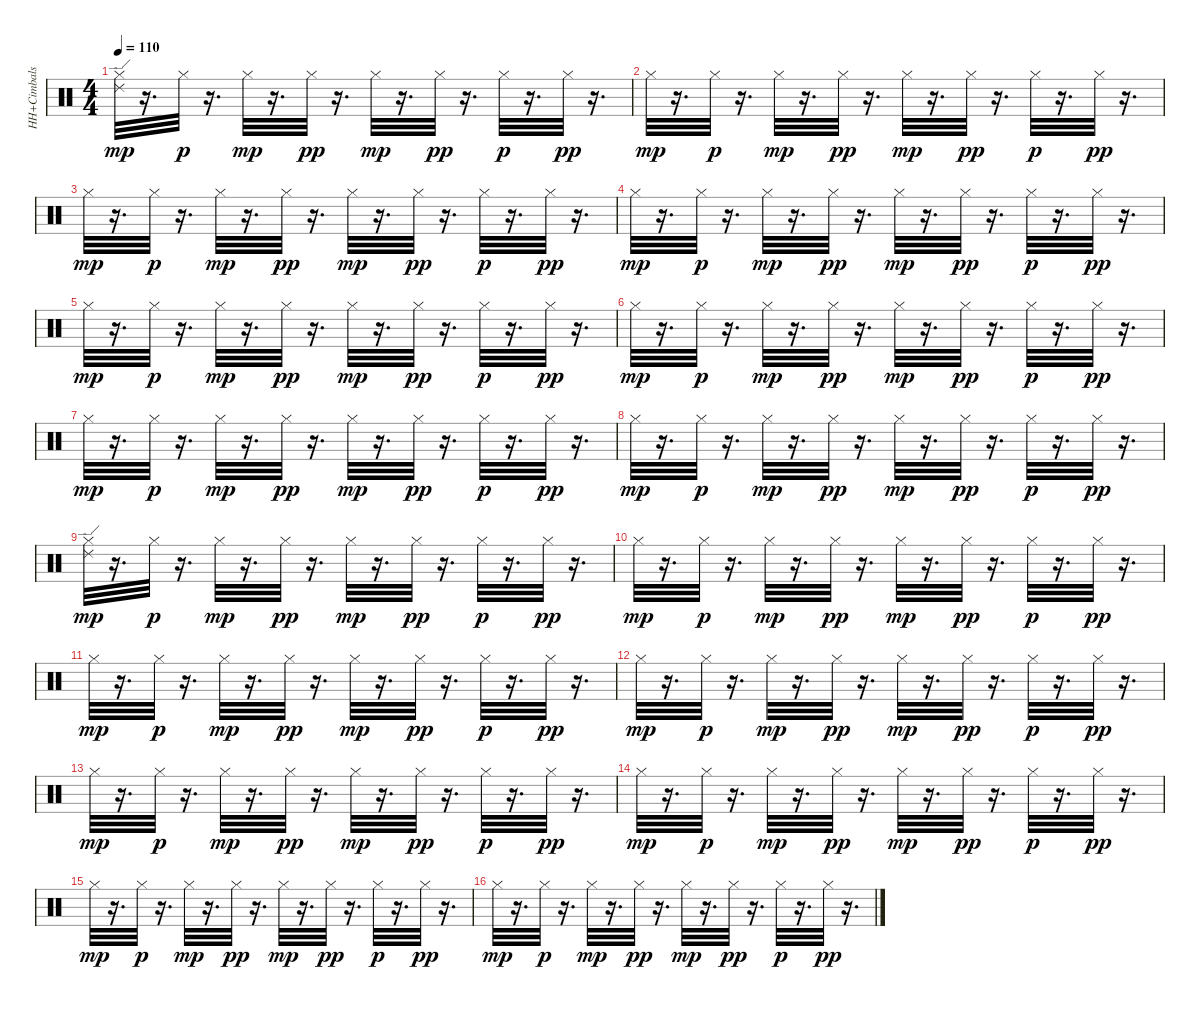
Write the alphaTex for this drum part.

\track ("HH+Cimbals" "HH+Cimbals") {instrument percussion}
\staff {score}
\articulation defaults
\ts (4 4)
\tempo 110
\clef neutral
\ks c
("Hi-Hat (closed)" "Ride (edge) 2").32{dy mp} r.16{d} "Hi-Hat (closed)".32{dy p} r.16{d} "Hi-Hat (closed)".32{dy mp} r.16{d} "Hi-Hat (closed)".32{dy pp} r.16{d} "Hi-Hat (closed)".32{dy mp} r.16{d} "Hi-Hat (closed)".32{dy pp} r.16{d} "Hi-Hat (closed)".32{dy p} r.16{d} "Hi-Hat (closed)".32{dy pp} r.16{d} |
"Hi-Hat (closed)".32{dy mp} r.16{d} "Hi-Hat (closed)".32{dy p} r.16{d} "Hi-Hat (closed)".32{dy mp} r.16{d} "Hi-Hat (closed)".32{dy pp} r.16{d} "Hi-Hat (closed)".32{dy mp} r.16{d} "Hi-Hat (closed)".32{dy pp} r.16{d} "Hi-Hat (closed)".32{dy p} r.16{d} "Hi-Hat (closed)".32{dy pp} r.16{d} |
"Hi-Hat (closed)".32{dy mp} r.16{d} "Hi-Hat (closed)".32{dy p} r.16{d} "Hi-Hat (closed)".32{dy mp} r.16{d} "Hi-Hat (closed)".32{dy pp} r.16{d} "Hi-Hat (closed)".32{dy mp} r.16{d} "Hi-Hat (closed)".32{dy pp} r.16{d} "Hi-Hat (closed)".32{dy p} r.16{d} "Hi-Hat (closed)".32{dy pp} r.16{d} |
"Hi-Hat (closed)".32{dy mp} r.16{d} "Hi-Hat (closed)".32{dy p} r.16{d} "Hi-Hat (closed)".32{dy mp} r.16{d} "Hi-Hat (closed)".32{dy pp} r.16{d} "Hi-Hat (closed)".32{dy mp} r.16{d} "Hi-Hat (closed)".32{dy pp} r.16{d} "Hi-Hat (closed)".32{dy p} r.16{d} "Hi-Hat (closed)".32{dy pp} r.16{d} |
"Hi-Hat (closed)".32{dy mp} r.16{d} "Hi-Hat (closed)".32{dy p} r.16{d} "Hi-Hat (closed)".32{dy mp} r.16{d} "Hi-Hat (closed)".32{dy pp} r.16{d} "Hi-Hat (closed)".32{dy mp} r.16{d} "Hi-Hat (closed)".32{dy pp} r.16{d} "Hi-Hat (closed)".32{dy p} r.16{d} "Hi-Hat (closed)".32{dy pp} r.16{d} |
"Hi-Hat (closed)".32{dy mp} r.16{d} "Hi-Hat (closed)".32{dy p} r.16{d} "Hi-Hat (closed)".32{dy mp} r.16{d} "Hi-Hat (closed)".32{dy pp} r.16{d} "Hi-Hat (closed)".32{dy mp} r.16{d} "Hi-Hat (closed)".32{dy pp} r.16{d} "Hi-Hat (closed)".32{dy p} r.16{d} "Hi-Hat (closed)".32{dy pp} r.16{d} |
"Hi-Hat (closed)".32{dy mp} r.16{d} "Hi-Hat (closed)".32{dy p} r.16{d} "Hi-Hat (closed)".32{dy mp} r.16{d} "Hi-Hat (closed)".32{dy pp} r.16{d} "Hi-Hat (closed)".32{dy mp} r.16{d} "Hi-Hat (closed)".32{dy pp} r.16{d} "Hi-Hat (closed)".32{dy p} r.16{d} "Hi-Hat (closed)".32{dy pp} r.16{d} |
"Hi-Hat (closed)".32{dy mp} r.16{d} "Hi-Hat (closed)".32{dy p} r.16{d} "Hi-Hat (closed)".32{dy mp} r.16{d} "Hi-Hat (closed)".32{dy pp} r.16{d} "Hi-Hat (closed)".32{dy mp} r.16{d} "Hi-Hat (closed)".32{dy pp} r.16{d} "Hi-Hat (closed)".32{dy p} r.16{d} "Hi-Hat (closed)".32{dy pp} r.16{d} |
("Ride (edge) 2" "Hi-Hat (closed)").32{dy mp} r.16{d} "Hi-Hat (closed)".32{dy p} r.16{d} "Hi-Hat (closed)".32{dy mp} r.16{d} "Hi-Hat (closed)".32{dy pp} r.16{d} "Hi-Hat (closed)".32{dy mp} r.16{d} "Hi-Hat (closed)".32{dy pp} r.16{d} "Hi-Hat (closed)".32{dy p} r.16{d} "Hi-Hat (closed)".32{dy pp} r.16{d} |
"Hi-Hat (closed)".32{dy mp} r.16{d} "Hi-Hat (closed)".32{dy p} r.16{d} "Hi-Hat (closed)".32{dy mp} r.16{d} "Hi-Hat (closed)".32{dy pp} r.16{d} "Hi-Hat (closed)".32{dy mp} r.16{d} "Hi-Hat (closed)".32{dy pp} r.16{d} "Hi-Hat (closed)".32{dy p} r.16{d} "Hi-Hat (closed)".32{dy pp} r.16{d} |
"Hi-Hat (closed)".32{dy mp} r.16{d} "Hi-Hat (closed)".32{dy p} r.16{d} "Hi-Hat (closed)".32{dy mp} r.16{d} "Hi-Hat (closed)".32{dy pp} r.16{d} "Hi-Hat (closed)".32{dy mp} r.16{d} "Hi-Hat (closed)".32{dy pp} r.16{d} "Hi-Hat (closed)".32{dy p} r.16{d} "Hi-Hat (closed)".32{dy pp} r.16{d} |
"Hi-Hat (closed)".32{dy mp} r.16{d} "Hi-Hat (closed)".32{dy p} r.16{d} "Hi-Hat (closed)".32{dy mp} r.16{d} "Hi-Hat (closed)".32{dy pp} r.16{d} "Hi-Hat (closed)".32{dy mp} r.16{d} "Hi-Hat (closed)".32{dy pp} r.16{d} "Hi-Hat (closed)".32{dy p} r.16{d} "Hi-Hat (closed)".32{dy pp} r.16{d} |
"Hi-Hat (closed)".32{dy mp} r.16{d} "Hi-Hat (closed)".32{dy p} r.16{d} "Hi-Hat (closed)".32{dy mp} r.16{d} "Hi-Hat (closed)".32{dy pp} r.16{d} "Hi-Hat (closed)".32{dy mp} r.16{d} "Hi-Hat (closed)".32{dy pp} r.16{d} "Hi-Hat (closed)".32{dy p} r.16{d} "Hi-Hat (closed)".32{dy pp} r.16{d} |
"Hi-Hat (closed)".32{dy mp} r.16{d} "Hi-Hat (closed)".32{dy p} r.16{d} "Hi-Hat (closed)".32{dy mp} r.16{d} "Hi-Hat (closed)".32{dy pp} r.16{d} "Hi-Hat (closed)".32{dy mp} r.16{d} "Hi-Hat (closed)".32{dy pp} r.16{d} "Hi-Hat (closed)".32{dy p} r.16{d} "Hi-Hat (closed)".32{dy pp} r.16{d} |
"Hi-Hat (closed)".32{dy mp} r.16{d} "Hi-Hat (closed)".32{dy p} r.16{d} "Hi-Hat (closed)".32{dy mp} r.16{d} "Hi-Hat (closed)".32{dy pp} r.16{d} "Hi-Hat (closed)".32{dy mp} r.16{d} "Hi-Hat (closed)".32{dy pp} r.16{d} "Hi-Hat (closed)".32{dy p} r.16{d} "Hi-Hat (closed)".32{dy pp} r.16{d} |
"Hi-Hat (closed)".32{dy mp} r.16{d} "Hi-Hat (closed)".32{dy p} r.16{d} "Hi-Hat (closed)".32{dy mp} r.16{d} "Hi-Hat (closed)".32{dy pp} r.16{d} "Hi-Hat (closed)".32{dy mp} r.16{d} "Hi-Hat (closed)".32{dy pp} r.16{d} "Hi-Hat (closed)".32{dy p} r.16{d} "Hi-Hat (closed)".32{dy pp} r.16{d}
